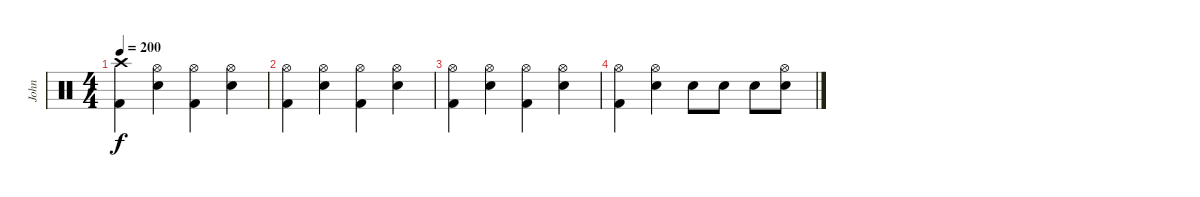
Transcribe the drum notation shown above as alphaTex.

\track ("John" "John") {instrument percussion}
\staff {score}
\articulation defaults
\ts (4 4)
\tempo 200
\clef neutral
\ks c
("Crash high (hit)" "Kick (hit) 2").4{dy f} ("Hi-Hat (open)" "Electric Snare (hit)").4 ("Hi-Hat (open)" "Kick (hit) 2").4 ("Hi-Hat (open)" "Electric Snare (hit)").4 |
("Hi-Hat (open)" "Kick (hit) 2").4 ("Hi-Hat (open)" "Electric Snare (hit)").4 ("Hi-Hat (open)" "Kick (hit) 2").4 ("Hi-Hat (open)" "Electric Snare (hit)").4 |
("Hi-Hat (open)" "Kick (hit) 2").4 ("Hi-Hat (open)" "Electric Snare (hit)").4 ("Hi-Hat (open)" "Kick (hit) 2").4 ("Hi-Hat (open)" "Electric Snare (hit)").4 |
("Hi-Hat (open)" "Kick (hit) 2").4 ("Hi-Hat (open)" "Electric Snare (hit)").4 "Electric Snare (hit)".8 "Electric Snare (hit)".8 "Electric Snare (hit)".8 ("Hi-Hat (open)" "Electric Snare (hit)").8
